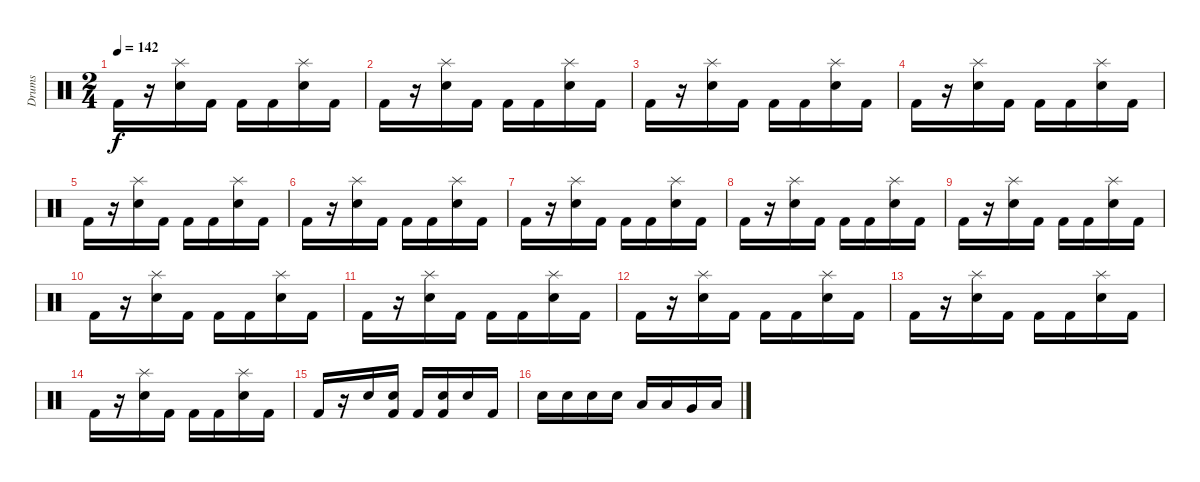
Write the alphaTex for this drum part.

\track ("Drums" "Drums") {instrument percussion}
\staff {score}
\articulation defaults
\ts (2 4)
\tempo 142
\clef neutral
\ks c "Kick (hit) 2".16{dy f}
r.16 ("Splash (hit)" "Electric Snare (hit)").16 "Kick (hit) 2".16 "Kick (hit) 2".16 "Kick (hit) 2".16 ("Splash (hit)" "Electric Snare (hit)").16 "Kick (hit) 2".16 |
"Kick (hit) 2".16 r.16 ("Splash (hit)" "Electric Snare (hit)").16 "Kick (hit) 2".16 "Kick (hit) 2".16 "Kick (hit) 2".16 ("Splash (hit)" "Electric Snare (hit)").16 "Kick (hit) 2".16 |
"Kick (hit) 2".16 r.16 ("Splash (hit)" "Electric Snare (hit)").16 "Kick (hit) 2".16 "Kick (hit) 2".16 "Kick (hit) 2".16 ("Splash (hit)" "Electric Snare (hit)").16 "Kick (hit) 2".16 |
"Kick (hit) 2".16 r.16 ("Splash (hit)" "Electric Snare (hit)").16 "Kick (hit) 2".16 "Kick (hit) 2".16 "Kick (hit) 2".16 ("Splash (hit)" "Electric Snare (hit)").16 "Kick (hit) 2".16 |
"Kick (hit) 2".16 r.16 ("Splash (hit)" "Electric Snare (hit)").16 "Kick (hit) 2".16 "Kick (hit) 2".16 "Kick (hit) 2".16 ("Splash (hit)" "Electric Snare (hit)").16 "Kick (hit) 2".16 |
"Kick (hit) 2".16 r.16 ("Splash (hit)" "Electric Snare (hit)").16 "Kick (hit) 2".16 "Kick (hit) 2".16 "Kick (hit) 2".16 ("Splash (hit)" "Electric Snare (hit)").16 "Kick (hit) 2".16 |
"Kick (hit) 2".16 r.16 ("Splash (hit)" "Electric Snare (hit)").16 "Kick (hit) 2".16 "Kick (hit) 2".16 "Kick (hit) 2".16 ("Splash (hit)" "Electric Snare (hit)").16 "Kick (hit) 2".16 |
"Kick (hit) 2".16 r.16 ("Splash (hit)" "Electric Snare (hit)").16 "Kick (hit) 2".16 "Kick (hit) 2".16 "Kick (hit) 2".16 ("Splash (hit)" "Electric Snare (hit)").16 "Kick (hit) 2".16 |
"Kick (hit) 2".16 r.16 ("Splash (hit)" "Electric Snare (hit)").16 "Kick (hit) 2".16 "Kick (hit) 2".16 "Kick (hit) 2".16 ("Splash (hit)" "Electric Snare (hit)").16 "Kick (hit) 2".16 |
"Kick (hit) 2".16 r.16 ("Splash (hit)" "Electric Snare (hit)").16 "Kick (hit) 2".16 "Kick (hit) 2".16 "Kick (hit) 2".16 ("Splash (hit)" "Electric Snare (hit)").16 "Kick (hit) 2".16 |
"Kick (hit) 2".16 r.16 ("Splash (hit)" "Electric Snare (hit)").16 "Kick (hit) 2".16 "Kick (hit) 2".16 "Kick (hit) 2".16 ("Splash (hit)" "Electric Snare (hit)").16 "Kick (hit) 2".16 |
"Kick (hit) 2".16 r.16 ("Splash (hit)" "Electric Snare (hit)").16 "Kick (hit) 2".16 "Kick (hit) 2".16 "Kick (hit) 2".16 ("Splash (hit)" "Electric Snare (hit)").16 "Kick (hit) 2".16 |
"Kick (hit) 2".16 r.16 ("Splash (hit)" "Electric Snare (hit)").16 "Kick (hit) 2".16 "Kick (hit) 2".16 "Kick (hit) 2".16 ("Splash (hit)" "Electric Snare (hit)").16 "Kick (hit) 2".16 |
"Kick (hit) 2".16 r.16 ("Splash (hit)" "Electric Snare (hit)").16 "Kick (hit) 2".16 "Kick (hit) 2".16 "Kick (hit) 2".16 ("Splash (hit)" "Electric Snare (hit)").16 "Kick (hit) 2".16 |
"Kick (hit) 2".16 r.16 "Electric Snare (hit)".16 ("Electric Snare (hit)" "Kick (hit) 2").16 "Kick (hit) 2".16 ("Electric Snare (hit)" "Kick (hit) 2").16 "Electric Snare (hit)".16 "Kick (hit) 2".16 |
"Electric Snare (hit)".16 "Electric Snare (hit)".16 "Electric Snare (hit)".16 "Electric Snare (hit)".16 "Low Tom (hit)".16 "Low Tom (hit)".16 "Very Low Tom (hit)".16 "Low Floor Tom (hit)".16
